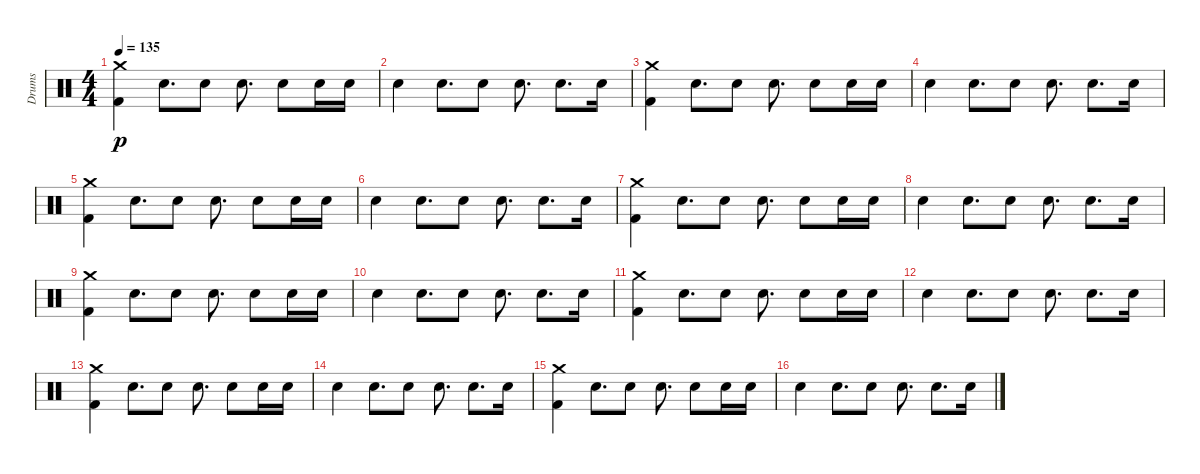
\track ("Drums" "Drums") {instrument percussion}
\staff {score}
\articulation defaults
\ts (4 4)
\tempo 135
\clef neutral
\ks c
("Crash medium (hit)" "Kick (hit) 2").4{dy p} "Snare (hit) 2".8{d} "Snare (hit) 2".8 "Snare (hit) 2".8{d} "Snare (hit) 2".8 "Snare (hit) 2".16 "Snare (hit) 2".16 |
"Snare (hit) 2".4 "Snare (hit) 2".8{d} "Snare (hit) 2".8 "Snare (hit) 2".8{d} "Snare (hit) 2".8{d} "Snare (hit) 2".16 |
("Crash medium (hit)" "Kick (hit) 2").4 "Snare (hit) 2".8{d} "Snare (hit) 2".8 "Snare (hit) 2".8{d} "Snare (hit) 2".8 "Snare (hit) 2".16 "Snare (hit) 2".16 |
"Snare (hit) 2".4 "Snare (hit) 2".8{d} "Snare (hit) 2".8 "Snare (hit) 2".8{d} "Snare (hit) 2".8{d} "Snare (hit) 2".16 |
("Crash medium (hit)" "Kick (hit) 2").4 "Snare (hit) 2".8{d} "Snare (hit) 2".8 "Snare (hit) 2".8{d} "Snare (hit) 2".8 "Snare (hit) 2".16 "Snare (hit) 2".16 |
"Snare (hit) 2".4 "Snare (hit) 2".8{d} "Snare (hit) 2".8 "Snare (hit) 2".8{d} "Snare (hit) 2".8{d} "Snare (hit) 2".16 |
("Crash medium (hit)" "Kick (hit) 2").4 "Snare (hit) 2".8{d} "Snare (hit) 2".8 "Snare (hit) 2".8{d} "Snare (hit) 2".8 "Snare (hit) 2".16 "Snare (hit) 2".16 |
"Snare (hit) 2".4 "Snare (hit) 2".8{d} "Snare (hit) 2".8 "Snare (hit) 2".8{d} "Snare (hit) 2".8{d} "Snare (hit) 2".16 |
("Crash medium (hit)" "Kick (hit) 2").4 "Snare (hit) 2".8{d} "Snare (hit) 2".8 "Snare (hit) 2".8{d} "Snare (hit) 2".8 "Snare (hit) 2".16 "Snare (hit) 2".16 |
"Snare (hit) 2".4 "Snare (hit) 2".8{d} "Snare (hit) 2".8 "Snare (hit) 2".8{d} "Snare (hit) 2".8{d} "Snare (hit) 2".16 |
("Crash medium (hit)" "Kick (hit) 2").4 "Snare (hit) 2".8{d} "Snare (hit) 2".8 "Snare (hit) 2".8{d} "Snare (hit) 2".8 "Snare (hit) 2".16 "Snare (hit) 2".16 |
"Snare (hit) 2".4 "Snare (hit) 2".8{d} "Snare (hit) 2".8 "Snare (hit) 2".8{d} "Snare (hit) 2".8{d} "Snare (hit) 2".16 |
("Crash medium (hit)" "Kick (hit) 2").4 "Snare (hit) 2".8{d} "Snare (hit) 2".8 "Snare (hit) 2".8{d} "Snare (hit) 2".8 "Snare (hit) 2".16 "Snare (hit) 2".16 |
"Snare (hit) 2".4 "Snare (hit) 2".8{d} "Snare (hit) 2".8 "Snare (hit) 2".8{d} "Snare (hit) 2".8{d} "Snare (hit) 2".16 |
("Crash medium (hit)" "Kick (hit) 2").4 "Snare (hit) 2".8{d} "Snare (hit) 2".8 "Snare (hit) 2".8{d} "Snare (hit) 2".8 "Snare (hit) 2".16 "Snare (hit) 2".16 |
"Snare (hit) 2".4 "Snare (hit) 2".8{d} "Snare (hit) 2".8 "Snare (hit) 2".8{d} "Snare (hit) 2".8{d} "Snare (hit) 2".16
